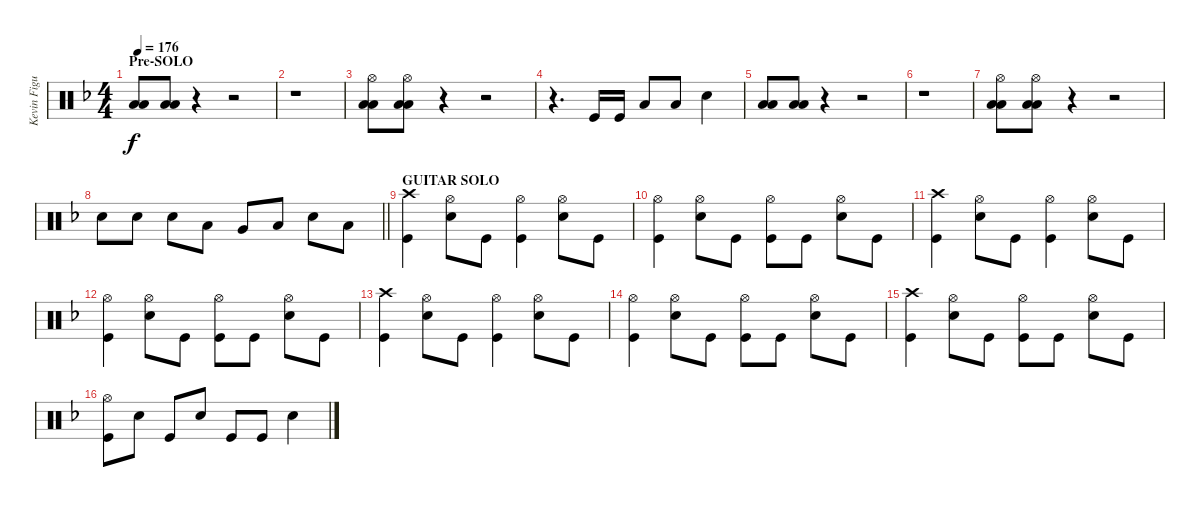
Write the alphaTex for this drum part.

\track ("Kevin Figueiredo - Drums" "Kevin Figu") {instrument percussion}
\staff {score}
\articulation defaults
\ts (4 4)
\section ("" "Pre-SOLO")
\tempo 176
\clef neutral
\ks f
("Low Tom (hit)" "Low Floor Tom (hit)").8{dy f} ("Low Tom (hit)" "Low Floor Tom (hit)").8 r.4 r.2 |
r.1 |
("Hi-Hat (open)" "Low Tom (hit)" "Low Floor Tom (hit)").8 ("Hi-Hat (open)" "Low Tom (hit)" "Low Floor Tom (hit)").8 r.4 r.2 |
r.4{d} "Kick (hit)".16 "Kick (hit)".16 "Low Tom (hit)".8 "Low Floor Tom (hit)".8 "Snare (hit) 2".4 |
("Low Tom (hit)" "Low Floor Tom (hit)").8 ("Low Tom (hit)" "Low Floor Tom (hit)").8 r.4 r.2 |
r.1 |
("Hi-Hat (open)" "Low Tom (hit)" "Low Floor Tom (hit)").8 ("Hi-Hat (open)" "Low Tom (hit)" "Low Floor Tom (hit)").8 r.4 r.2 |
\barLineRight lightlight "Snare (hit) 2".8 "Snare (hit) 2".8 "Snare (hit) 2".8 "Low Tom (hit)".8 "Very Low Tom (hit)".8 "Low Floor Tom (hit)".8 "Snare (hit) 2".8 "Low Floor Tom (hit)".8
|
\section ("" "GUITAR SOLO")
("Crash high (hit)" "Kick (hit)").4 ("Hi-Hat (open)" "Snare (hit) 2").8 "Kick (hit)".8 ("Hi-Hat (open)" "Kick (hit)").4 ("Hi-Hat (open)" "Snare (hit) 2").8 "Kick (hit)".8 |
("Hi-Hat (open)" "Kick (hit)").4 ("Hi-Hat (open)" "Snare (hit) 2").8 "Kick (hit)".8 ("Hi-Hat (open)" "Kick (hit)").8 "Kick (hit)".8 ("Hi-Hat (open)" "Snare (hit) 2").8 "Kick (hit)".8 |
("Crash high (hit)" "Kick (hit)").4 ("Hi-Hat (open)" "Snare (hit) 2").8 "Kick (hit)".8 ("Hi-Hat (open)" "Kick (hit)").4 ("Hi-Hat (open)" "Snare (hit) 2").8 "Kick (hit)".8 |
("Hi-Hat (open)" "Kick (hit)").4 ("Hi-Hat (open)" "Snare (hit) 2").8 "Kick (hit)".8 ("Hi-Hat (open)" "Kick (hit)").8 "Kick (hit)".8 ("Hi-Hat (open)" "Snare (hit) 2").8 "Kick (hit)".8 |
("Crash high (hit)" "Kick (hit)").4 ("Hi-Hat (open)" "Snare (hit) 2").8 "Kick (hit)".8 ("Hi-Hat (open)" "Kick (hit)").4 ("Hi-Hat (open)" "Snare (hit) 2").8 "Kick (hit)".8 |
("Hi-Hat (open)" "Kick (hit)").4 ("Hi-Hat (open)" "Snare (hit) 2").8 "Kick (hit)".8 ("Hi-Hat (open)" "Kick (hit)").8 "Kick (hit)".8 ("Hi-Hat (open)" "Snare (hit) 2").8 "Kick (hit)".8 |
("Crash high (hit)" "Kick (hit)").4 ("Hi-Hat (open)" "Snare (hit) 2").8 "Kick (hit)".8 ("Hi-Hat (open)" "Kick (hit)").8 "Kick (hit)".8 ("Hi-Hat (open)" "Snare (hit) 2").8 "Kick (hit)".8 |
("Hi-Hat (open)" "Kick (hit)").8 "Snare (hit) 2".8 "Kick (hit)".8 "Snare (hit) 2".8 "Kick (hit)".8 "Kick (hit)".8 "Snare (hit) 2".4
